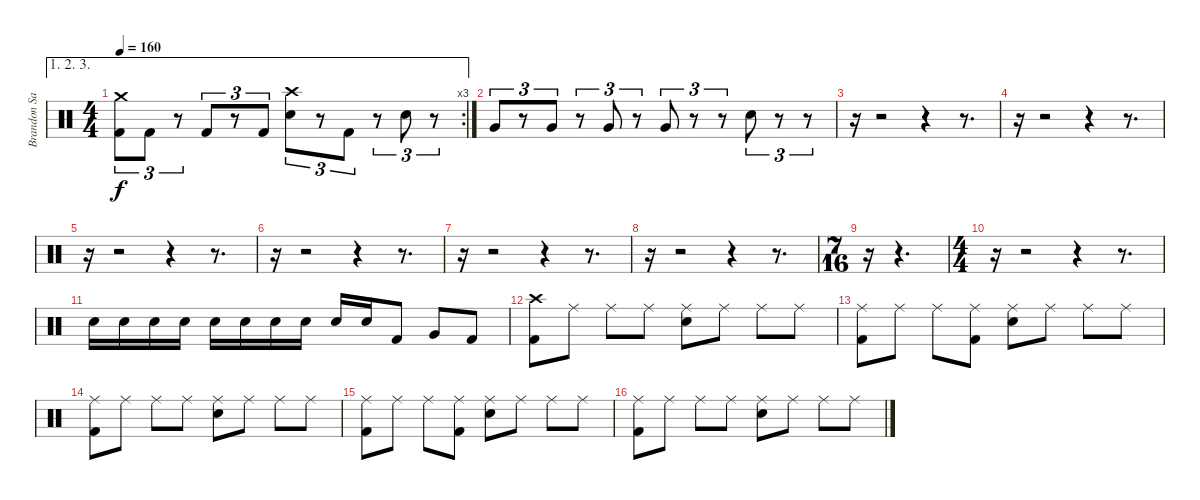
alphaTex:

\track ("Brandon Saller" "Brandon Sa") {instrument percussion}
\staff {score}
\articulation defaults
\ae (1 2 3)
\rc 3
\ts (4 4)
\tempo 160
\clef neutral
\ks c
("Crash medium (hit)" "Kick (hit) 2").8{tu (3 2) dy f} "Kick (hit) 2".8{tu (3 2)} r.8{tu (3 2)} "Kick (hit) 2".8{tu (3 2)} r.8{tu (3 2)} "Kick (hit) 2".8{tu (3 2)} ("Crash high (hit)" "Snare (hit) 2").8{tu (3 2)} r.8{tu (3 2)} "Kick (hit) 2".8{tu (3 2)} r.8{tu (3 2)} "Snare (hit) 2".8{tu (3 2)} r.8{tu (3 2)} |
"Very Low Tom (hit)".8{tu (3 2)} r.8{tu (3 2)} "Very Low Tom (hit)".8{tu (3 2)} r.8{tu (3 2)} "Very Low Tom (hit)".8{tu (3 2)} r.8{tu (3 2)} "Very Low Tom (hit)".8{tu (3 2)} r.8{tu (3 2)} r.8{tu (3 2)} "Snare (hit) 2".8{tu (3 2)} r.8{tu (3 2)} r.8{tu (3 2)} |
r.16 r.2 r.4 r.8{d} |
r.16 r.2 r.4 r.8{d} |
r.16 r.2 r.4 r.8{d} |
r.16 r.2 r.4 r.8{d} |
r.16 r.2 r.4 r.8{d} |
r.16 r.2 r.4 r.8{d} |
\ts (7 16)
r.16 r.4{d} |
\ts (4 4)
r.16 r.2 r.4 r.8{d} |
"Snare (hit) 2".16 "Snare (hit) 2".16 "Snare (hit) 2".16 "Snare (hit) 2".16 "Snare (hit) 2".16 "Snare (hit) 2".16 "Snare (hit) 2".16 "Snare (hit) 2".16 "Snare (hit) 2".16 "Snare (hit) 2".16 "Kick (hit) 2".8 "Very Low Tom (hit)".8 "Kick (hit) 2".8 |
("Crash high (hit)" "Kick (hit) 2").8 "Ride (middle)".8 "Ride (middle)".8 "Ride (middle)".8 ("Ride (middle)" "Snare (hit) 2").8 "Ride (middle)".8 "Ride (middle)".8 "Ride (middle)".8 |
("Ride (middle)" "Kick (hit) 2").8 "Ride (middle)".8 "Ride (middle)".8 ("Ride (middle)" "Kick (hit) 2").8 ("Ride (middle)" "Snare (hit) 2").8 "Ride (middle)".8 "Ride (middle)".8 "Ride (middle)".8 |
("Ride (middle)" "Kick (hit) 2").8 "Ride (middle)".8 "Ride (middle)".8 "Ride (middle)".8 ("Ride (middle)" "Snare (hit) 2").8 "Ride (middle)".8 "Ride (middle)".8 "Ride (middle)".8 |
("Ride (middle)" "Kick (hit) 2").8 "Ride (middle)".8 "Ride (middle)".8 ("Ride (middle)" "Kick (hit) 2").8 ("Ride (middle)" "Snare (hit) 2").8 "Ride (middle)".8 "Ride (middle)".8 "Ride (middle)".8 |
("Ride (middle)" "Kick (hit) 2").8 "Ride (middle)".8 "Ride (middle)".8 "Ride (middle)".8 ("Ride (middle)" "Snare (hit) 2").8 "Ride (middle)".8 "Ride (middle)".8 "Ride (middle)".8
